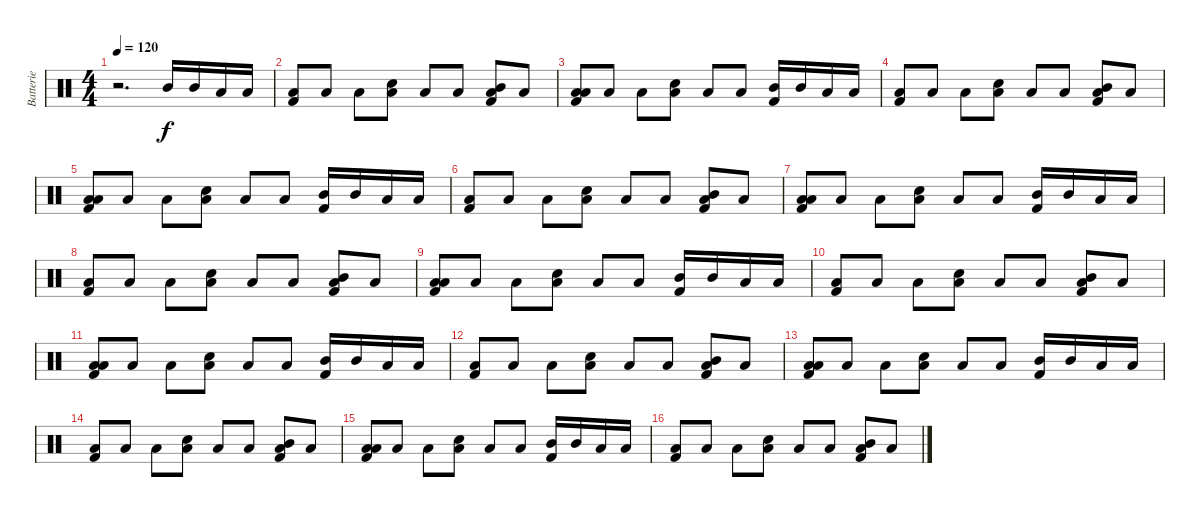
\track ("Batterie" "Batterie") {instrument percussion}
\staff {score}
\articulation defaults
\ts (4 4)
\tempo 120
\clef neutral
\ks c
r.2{d dy f} "Mid Tom (hit)".16 "Mid Tom (hit)".16 "Low Tom (hit)".16 "Low Tom (hit)".16 |
("Low Floor Tom (hit)" "Kick (hit) 2").8 "Low Floor Tom (hit)".8 "Low Floor Tom (hit)".8 ("Snare (hit) 2" "Low Floor Tom (hit)").8 "Low Floor Tom (hit)".8 "Low Floor Tom (hit)".8 ("Mid Tom (hit)" "Low Floor Tom (hit)" "Kick (hit) 2").8 "Low Floor Tom (hit)".8 |
("Low Tom (hit)" "Low Floor Tom (hit)" "Kick (hit) 2").8 "Low Floor Tom (hit)".8 "Low Floor Tom (hit)".8 ("Low Floor Tom (hit)" "Snare (hit) 2").8 "Low Floor Tom (hit)".8 "Low Floor Tom (hit)".8 ("Mid Tom (hit)" "Kick (hit) 2").16 "Mid Tom (hit)".16 "Low Tom (hit)".16 "Low Tom (hit)".16 |
("Low Floor Tom (hit)" "Kick (hit) 2").8 "Low Floor Tom (hit)".8 "Low Floor Tom (hit)".8 ("Snare (hit) 2" "Low Floor Tom (hit)").8 "Low Floor Tom (hit)".8 "Low Floor Tom (hit)".8 ("Mid Tom (hit)" "Low Floor Tom (hit)" "Kick (hit) 2").8 "Low Floor Tom (hit)".8 |
("Low Tom (hit)" "Low Floor Tom (hit)" "Kick (hit) 2").8 "Low Floor Tom (hit)".8 "Low Floor Tom (hit)".8 ("Low Floor Tom (hit)" "Snare (hit) 2").8 "Low Floor Tom (hit)".8 "Low Floor Tom (hit)".8 ("Mid Tom (hit)" "Kick (hit) 2").16 "Mid Tom (hit)".16 "Low Tom (hit)".16 "Low Tom (hit)".16 |
("Low Floor Tom (hit)" "Kick (hit) 2").8 "Low Floor Tom (hit)".8 "Low Floor Tom (hit)".8 ("Snare (hit) 2" "Low Floor Tom (hit)").8 "Low Floor Tom (hit)".8 "Low Floor Tom (hit)".8 ("Mid Tom (hit)" "Low Floor Tom (hit)" "Kick (hit) 2").8 "Low Floor Tom (hit)".8 |
("Low Tom (hit)" "Low Floor Tom (hit)" "Kick (hit) 2").8 "Low Floor Tom (hit)".8 "Low Floor Tom (hit)".8 ("Low Floor Tom (hit)" "Snare (hit) 2").8 "Low Floor Tom (hit)".8 "Low Floor Tom (hit)".8 ("Mid Tom (hit)" "Kick (hit) 2").16 "Mid Tom (hit)".16 "Low Tom (hit)".16 "Low Tom (hit)".16 |
("Low Floor Tom (hit)" "Kick (hit) 2").8 "Low Floor Tom (hit)".8 "Low Floor Tom (hit)".8 ("Snare (hit) 2" "Low Floor Tom (hit)").8 "Low Floor Tom (hit)".8 "Low Floor Tom (hit)".8 ("Mid Tom (hit)" "Low Floor Tom (hit)" "Kick (hit) 2").8 "Low Floor Tom (hit)".8 |
("Low Tom (hit)" "Low Floor Tom (hit)" "Kick (hit) 2").8 "Low Floor Tom (hit)".8 "Low Floor Tom (hit)".8 ("Low Floor Tom (hit)" "Snare (hit) 2").8 "Low Floor Tom (hit)".8 "Low Floor Tom (hit)".8 ("Mid Tom (hit)" "Kick (hit) 2").16 "Mid Tom (hit)".16 "Low Tom (hit)".16 "Low Tom (hit)".16 |
("Low Floor Tom (hit)" "Kick (hit) 2").8 "Low Floor Tom (hit)".8 "Low Floor Tom (hit)".8 ("Snare (hit) 2" "Low Floor Tom (hit)").8 "Low Floor Tom (hit)".8 "Low Floor Tom (hit)".8 ("Mid Tom (hit)" "Low Floor Tom (hit)" "Kick (hit) 2").8 "Low Floor Tom (hit)".8 |
("Low Tom (hit)" "Low Floor Tom (hit)" "Kick (hit) 2").8 "Low Floor Tom (hit)".8 "Low Floor Tom (hit)".8 ("Low Floor Tom (hit)" "Snare (hit) 2").8 "Low Floor Tom (hit)".8 "Low Floor Tom (hit)".8 ("Mid Tom (hit)" "Kick (hit) 2").16 "Mid Tom (hit)".16 "Low Tom (hit)".16 "Low Tom (hit)".16 |
("Low Floor Tom (hit)" "Kick (hit) 2").8 "Low Floor Tom (hit)".8 "Low Floor Tom (hit)".8 ("Snare (hit) 2" "Low Floor Tom (hit)").8 "Low Floor Tom (hit)".8 "Low Floor Tom (hit)".8 ("Mid Tom (hit)" "Low Floor Tom (hit)" "Kick (hit) 2").8 "Low Floor Tom (hit)".8 |
("Low Tom (hit)" "Low Floor Tom (hit)" "Kick (hit) 2").8 "Low Floor Tom (hit)".8 "Low Floor Tom (hit)".8 ("Low Floor Tom (hit)" "Snare (hit) 2").8 "Low Floor Tom (hit)".8 "Low Floor Tom (hit)".8 ("Mid Tom (hit)" "Kick (hit) 2").16 "Mid Tom (hit)".16 "Low Tom (hit)".16 "Low Tom (hit)".16 |
("Low Floor Tom (hit)" "Kick (hit) 2").8 "Low Floor Tom (hit)".8 "Low Floor Tom (hit)".8 ("Snare (hit) 2" "Low Floor Tom (hit)").8 "Low Floor Tom (hit)".8 "Low Floor Tom (hit)".8 ("Mid Tom (hit)" "Low Floor Tom (hit)" "Kick (hit) 2").8 "Low Floor Tom (hit)".8 |
("Low Tom (hit)" "Low Floor Tom (hit)" "Kick (hit) 2").8 "Low Floor Tom (hit)".8 "Low Floor Tom (hit)".8 ("Low Floor Tom (hit)" "Snare (hit) 2").8 "Low Floor Tom (hit)".8 "Low Floor Tom (hit)".8 ("Mid Tom (hit)" "Kick (hit) 2").16 "Mid Tom (hit)".16 "Low Tom (hit)".16 "Low Tom (hit)".16 |
("Low Floor Tom (hit)" "Kick (hit) 2").8 "Low Floor Tom (hit)".8 "Low Floor Tom (hit)".8 ("Snare (hit) 2" "Low Floor Tom (hit)").8 "Low Floor Tom (hit)".8 "Low Floor Tom (hit)".8 ("Mid Tom (hit)" "Low Floor Tom (hit)" "Kick (hit) 2").8 "Low Floor Tom (hit)".8
